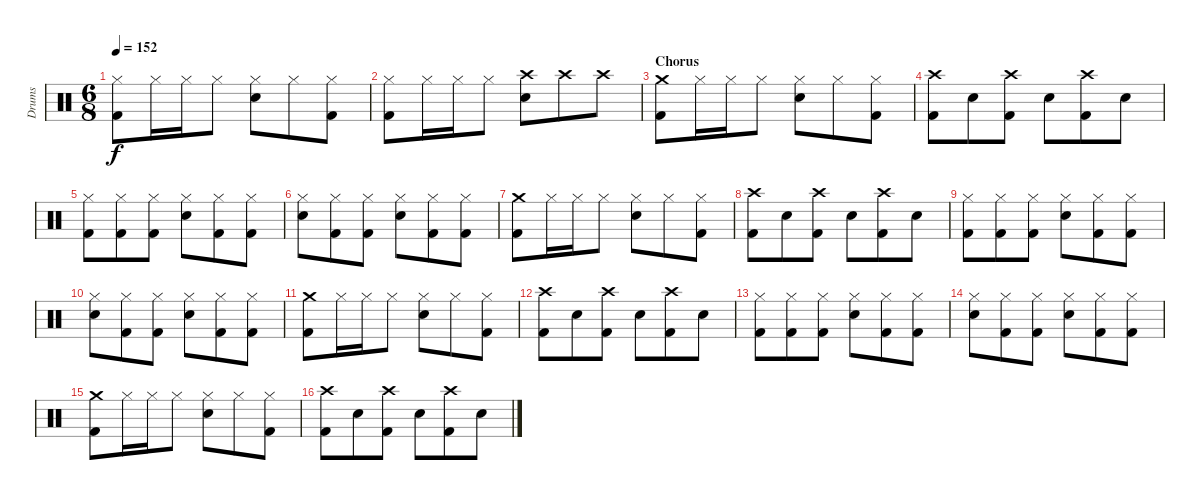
\track ("Drums" "Drums") {instrument percussion}
\staff {score}
\articulation defaults
\ts (6 8)
\tempo 152
\clef neutral
\ks c
("Hi-Hat (closed)" "Kick (hit) 2").8{dy f} "Hi-Hat (closed)".16 "Hi-Hat (closed)".16 "Hi-Hat (closed)".8 ("Electric Snare (hit)" "Hi-Hat (closed)").8 "Hi-Hat (closed)".8 ("Hi-Hat (closed)" "Kick (hit) 2").8 |
("Hi-Hat (closed)" "Kick (hit) 2").8 "Hi-Hat (closed)".16 "Hi-Hat (closed)".16 "Hi-Hat (closed)".8 ("Electric Snare (hit)" "Crash high (hit)").8 "Crash high (hit)".8 "Crash high (hit)".8 |
\section ("" "Chorus")
("Crash medium (hit)" "Kick (hit) 2").8 "Hi-Hat (closed)".16 "Hi-Hat (closed)".16 "Hi-Hat (closed)".8 ("Electric Snare (hit)" "Hi-Hat (closed)").8 "Hi-Hat (closed)".8 ("Hi-Hat (closed)" "Kick (hit) 2").8 |
("Crash high (hit)" "Kick (hit) 2").8 "Electric Snare (hit)".8 ("Crash high (hit)" "Kick (hit) 2").8 "Electric Snare (hit)".8 ("Crash high (hit)" "Kick (hit) 2").8 "Electric Snare (hit)".8 |
("Hi-Hat (closed)" "Kick (hit) 2").8 ("Hi-Hat (closed)" "Kick (hit) 2").8 ("Hi-Hat (closed)" "Kick (hit) 2").8 ("Electric Snare (hit)" "Hi-Hat (closed)").8 ("Hi-Hat (closed)" "Kick (hit) 2").8 ("Hi-Hat (closed)" "Kick (hit) 2").8 |
("Electric Snare (hit)" "Hi-Hat (closed)").8 ("Hi-Hat (closed)" "Kick (hit) 2").8 ("Hi-Hat (closed)" "Kick (hit) 2").8 ("Electric Snare (hit)" "Hi-Hat (closed)").8 ("Hi-Hat (closed)" "Kick (hit) 2").8 ("Hi-Hat (closed)" "Kick (hit) 2").8 |
("Crash medium (hit)" "Kick (hit) 2").8 "Hi-Hat (closed)".16 "Hi-Hat (closed)".16 "Hi-Hat (closed)".8 ("Electric Snare (hit)" "Hi-Hat (closed)").8 "Hi-Hat (closed)".8 ("Hi-Hat (closed)" "Kick (hit) 2").8 |
("Crash high (hit)" "Kick (hit) 2").8 "Electric Snare (hit)".8 ("Crash high (hit)" "Kick (hit) 2").8 "Electric Snare (hit)".8 ("Crash high (hit)" "Kick (hit) 2").8 "Electric Snare (hit)".8 |
("Hi-Hat (closed)" "Kick (hit) 2").8 ("Hi-Hat (closed)" "Kick (hit) 2").8 ("Hi-Hat (closed)" "Kick (hit) 2").8 ("Electric Snare (hit)" "Hi-Hat (closed)").8 ("Hi-Hat (closed)" "Kick (hit) 2").8 ("Hi-Hat (closed)" "Kick (hit) 2").8 |
("Electric Snare (hit)" "Hi-Hat (closed)").8 ("Hi-Hat (closed)" "Kick (hit) 2").8 ("Hi-Hat (closed)" "Kick (hit) 2").8 ("Electric Snare (hit)" "Hi-Hat (closed)").8 ("Hi-Hat (closed)" "Kick (hit) 2").8 ("Hi-Hat (closed)" "Kick (hit) 2").8 |
("Crash medium (hit)" "Kick (hit) 2").8 "Hi-Hat (closed)".16 "Hi-Hat (closed)".16 "Hi-Hat (closed)".8 ("Electric Snare (hit)" "Hi-Hat (closed)").8 "Hi-Hat (closed)".8 ("Hi-Hat (closed)" "Kick (hit) 2").8 |
("Crash high (hit)" "Kick (hit) 2").8 "Electric Snare (hit)".8 ("Crash high (hit)" "Kick (hit) 2").8 "Electric Snare (hit)".8 ("Crash high (hit)" "Kick (hit) 2").8 "Electric Snare (hit)".8 |
("Hi-Hat (closed)" "Kick (hit) 2").8 ("Hi-Hat (closed)" "Kick (hit) 2").8 ("Hi-Hat (closed)" "Kick (hit) 2").8 ("Electric Snare (hit)" "Hi-Hat (closed)").8 ("Hi-Hat (closed)" "Kick (hit) 2").8 ("Hi-Hat (closed)" "Kick (hit) 2").8 |
("Electric Snare (hit)" "Hi-Hat (closed)").8 ("Hi-Hat (closed)" "Kick (hit) 2").8 ("Hi-Hat (closed)" "Kick (hit) 2").8 ("Electric Snare (hit)" "Hi-Hat (closed)").8 ("Hi-Hat (closed)" "Kick (hit) 2").8 ("Hi-Hat (closed)" "Kick (hit) 2").8 |
("Crash medium (hit)" "Kick (hit) 2").8 "Hi-Hat (closed)".16 "Hi-Hat (closed)".16 "Hi-Hat (closed)".8 ("Electric Snare (hit)" "Hi-Hat (closed)").8 "Hi-Hat (closed)".8 ("Hi-Hat (closed)" "Kick (hit) 2").8 |
("Crash high (hit)" "Kick (hit) 2").8 "Electric Snare (hit)".8 ("Crash high (hit)" "Kick (hit) 2").8 "Electric Snare (hit)".8 ("Crash high (hit)" "Kick (hit) 2").8 "Electric Snare (hit)".8
